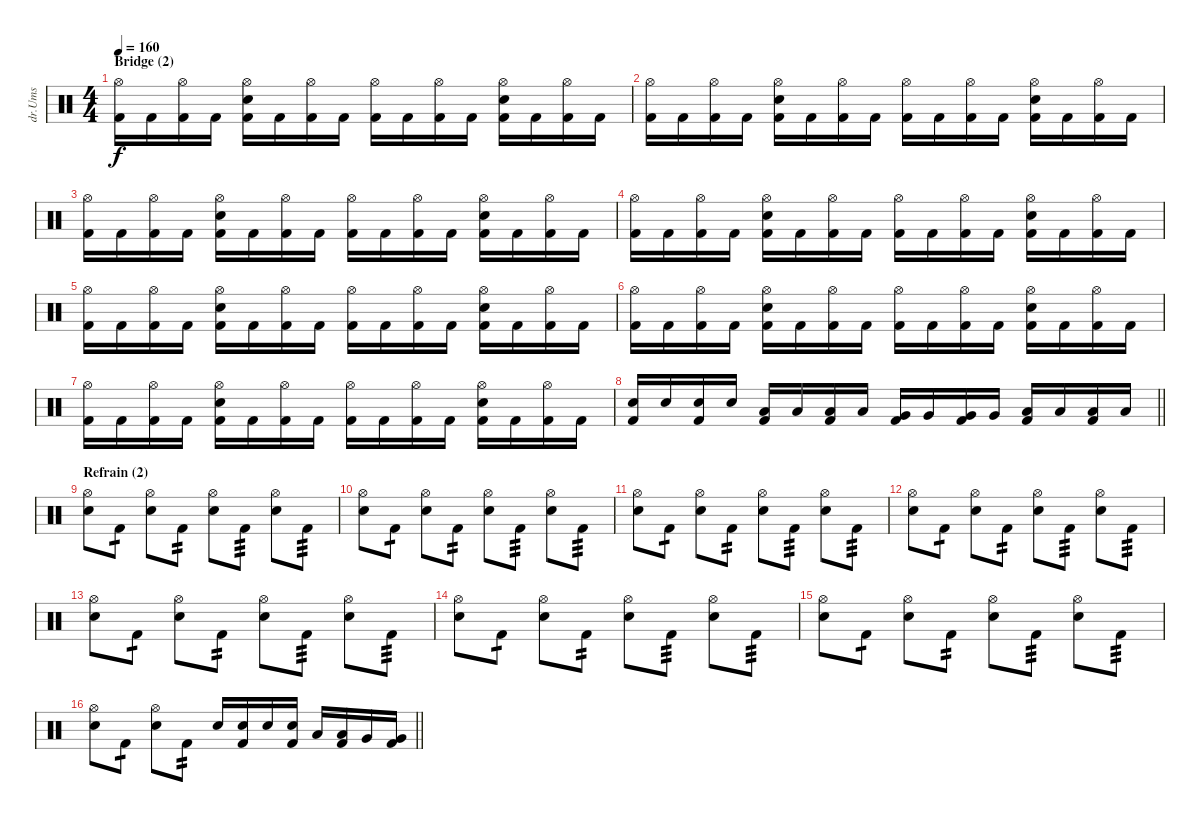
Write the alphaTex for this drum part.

\track ("dr.Ums" "dr.Ums") {instrument percussion}
\staff {score}
\articulation defaults
\ts (4 4)
\section ("" "Bridge (2)")
\tempo 160
\clef neutral
\ks c
("Kick (hit) 2" "Hi-Hat (open)").16{dy f} "Kick (hit) 2".16 ("Kick (hit) 2" "Hi-Hat (open)").16 "Kick (hit) 2".16 ("Kick (hit) 2" "Hi-Hat (open)" "Snare (hit) 2").16 "Kick (hit) 2".16 ("Kick (hit) 2" "Hi-Hat (open)").16 "Kick (hit) 2".16 ("Kick (hit) 2" "Hi-Hat (open)").16 "Kick (hit) 2".16 ("Kick (hit) 2" "Hi-Hat (open)").16 "Kick (hit) 2".16 ("Kick (hit) 2" "Hi-Hat (open)" "Snare (hit) 2").16 "Kick (hit) 2".16 ("Kick (hit) 2" "Hi-Hat (open)").16 "Kick (hit) 2".16 |
("Kick (hit) 2" "Hi-Hat (open)").16 "Kick (hit) 2".16 ("Kick (hit) 2" "Hi-Hat (open)").16 "Kick (hit) 2".16 ("Kick (hit) 2" "Hi-Hat (open)" "Snare (hit) 2").16 "Kick (hit) 2".16 ("Kick (hit) 2" "Hi-Hat (open)").16 "Kick (hit) 2".16 ("Kick (hit) 2" "Hi-Hat (open)").16 "Kick (hit) 2".16 ("Kick (hit) 2" "Hi-Hat (open)").16 "Kick (hit) 2".16 ("Kick (hit) 2" "Hi-Hat (open)" "Snare (hit) 2").16 "Kick (hit) 2".16 ("Kick (hit) 2" "Hi-Hat (open)").16 "Kick (hit) 2".16 |
("Kick (hit) 2" "Hi-Hat (open)").16 "Kick (hit) 2".16 ("Kick (hit) 2" "Hi-Hat (open)").16 "Kick (hit) 2".16 ("Kick (hit) 2" "Hi-Hat (open)" "Snare (hit) 2").16 "Kick (hit) 2".16 ("Kick (hit) 2" "Hi-Hat (open)").16 "Kick (hit) 2".16 ("Kick (hit) 2" "Hi-Hat (open)").16 "Kick (hit) 2".16 ("Kick (hit) 2" "Hi-Hat (open)").16 "Kick (hit) 2".16 ("Kick (hit) 2" "Hi-Hat (open)" "Snare (hit) 2").16 "Kick (hit) 2".16 ("Kick (hit) 2" "Hi-Hat (open)").16 "Kick (hit) 2".16 |
("Kick (hit) 2" "Hi-Hat (open)").16 "Kick (hit) 2".16 ("Kick (hit) 2" "Hi-Hat (open)").16 "Kick (hit) 2".16 ("Kick (hit) 2" "Hi-Hat (open)" "Snare (hit) 2").16 "Kick (hit) 2".16 ("Kick (hit) 2" "Hi-Hat (open)").16 "Kick (hit) 2".16 ("Kick (hit) 2" "Hi-Hat (open)").16 "Kick (hit) 2".16 ("Kick (hit) 2" "Hi-Hat (open)").16 "Kick (hit) 2".16 ("Kick (hit) 2" "Hi-Hat (open)" "Snare (hit) 2").16 "Kick (hit) 2".16 ("Kick (hit) 2" "Hi-Hat (open)").16 "Kick (hit) 2".16 |
("Kick (hit) 2" "Hi-Hat (open)").16 "Kick (hit) 2".16 ("Kick (hit) 2" "Hi-Hat (open)").16 "Kick (hit) 2".16 ("Kick (hit) 2" "Hi-Hat (open)" "Snare (hit) 2").16 "Kick (hit) 2".16 ("Kick (hit) 2" "Hi-Hat (open)").16 "Kick (hit) 2".16 ("Kick (hit) 2" "Hi-Hat (open)").16 "Kick (hit) 2".16 ("Kick (hit) 2" "Hi-Hat (open)").16 "Kick (hit) 2".16 ("Kick (hit) 2" "Hi-Hat (open)" "Snare (hit) 2").16 "Kick (hit) 2".16 ("Kick (hit) 2" "Hi-Hat (open)").16 "Kick (hit) 2".16 |
("Kick (hit) 2" "Hi-Hat (open)").16 "Kick (hit) 2".16 ("Kick (hit) 2" "Hi-Hat (open)").16 "Kick (hit) 2".16 ("Kick (hit) 2" "Hi-Hat (open)" "Snare (hit) 2").16 "Kick (hit) 2".16 ("Kick (hit) 2" "Hi-Hat (open)").16 "Kick (hit) 2".16 ("Kick (hit) 2" "Hi-Hat (open)").16 "Kick (hit) 2".16 ("Kick (hit) 2" "Hi-Hat (open)").16 "Kick (hit) 2".16 ("Kick (hit) 2" "Hi-Hat (open)" "Snare (hit) 2").16 "Kick (hit) 2".16 ("Kick (hit) 2" "Hi-Hat (open)").16 "Kick (hit) 2".16 |
("Kick (hit) 2" "Hi-Hat (open)").16 "Kick (hit) 2".16 ("Kick (hit) 2" "Hi-Hat (open)").16 "Kick (hit) 2".16 ("Kick (hit) 2" "Hi-Hat (open)" "Snare (hit) 2").16 "Kick (hit) 2".16 ("Kick (hit) 2" "Hi-Hat (open)").16 "Kick (hit) 2".16 ("Kick (hit) 2" "Hi-Hat (open)").16 "Kick (hit) 2".16 ("Kick (hit) 2" "Hi-Hat (open)").16 "Kick (hit) 2".16 ("Kick (hit) 2" "Hi-Hat (open)" "Snare (hit) 2").16 "Kick (hit) 2".16 ("Kick (hit) 2" "Hi-Hat (open)").16 "Kick (hit) 2".16 |
\barLineRight lightlight
("Snare (hit) 2" "Kick (hit) 2").16 "Snare (hit) 2".16 ("Snare (hit) 2" "Kick (hit) 2").16 "Snare (hit) 2".16 ("Low Tom (hit)" "Kick (hit) 2").16 "Low Tom (hit)".16 ("Low Tom (hit)" "Kick (hit) 2").16 "Low Tom (hit)".16 ("Very Low Tom (hit)" "Kick (hit) 2").16 "Very Low Tom (hit)".16 ("Very Low Tom (hit)" "Kick (hit) 2").16 "Very Low Tom (hit)".16 ("Low Floor Tom (hit)" "Kick (hit) 2").16 "Low Floor Tom (hit)".16 ("Low Floor Tom (hit)" "Kick (hit) 2").16 "Low Floor Tom (hit)".16 |
\section ("" "Refrain (2)")
("Snare (hit) 2" "Hi-Hat (open)").8 "Kick (hit) 2".8{tp 1} ("Snare (hit) 2" "Hi-Hat (open)").8 "Kick (hit) 2".8{tp 2} ("Snare (hit) 2" "Hi-Hat (open)").8 "Kick (hit) 2".8{tp 3} ("Snare (hit) 2" "Hi-Hat (open)").8 "Kick (hit) 2".8{tp 3} |
("Snare (hit) 2" "Hi-Hat (open)").8 "Kick (hit) 2".8{tp 1} ("Snare (hit) 2" "Hi-Hat (open)").8 "Kick (hit) 2".8{tp 2} ("Snare (hit) 2" "Hi-Hat (open)").8 "Kick (hit) 2".8{tp 3} ("Snare (hit) 2" "Hi-Hat (open)").8 "Kick (hit) 2".8{tp 3} |
("Snare (hit) 2" "Hi-Hat (open)").8 "Kick (hit) 2".8{tp 1} ("Snare (hit) 2" "Hi-Hat (open)").8 "Kick (hit) 2".8{tp 2} ("Snare (hit) 2" "Hi-Hat (open)").8 "Kick (hit) 2".8{tp 3} ("Snare (hit) 2" "Hi-Hat (open)").8 "Kick (hit) 2".8{tp 3} |
("Snare (hit) 2" "Hi-Hat (open)").8 "Kick (hit) 2".8{tp 1} ("Snare (hit) 2" "Hi-Hat (open)").8 "Kick (hit) 2".8{tp 2} ("Snare (hit) 2" "Hi-Hat (open)").8 "Kick (hit) 2".8{tp 3} ("Snare (hit) 2" "Hi-Hat (open)").8 "Kick (hit) 2".8{tp 3} |
("Snare (hit) 2" "Hi-Hat (open)").8 "Kick (hit) 2".8{tp 1} ("Snare (hit) 2" "Hi-Hat (open)").8 "Kick (hit) 2".8{tp 2} ("Snare (hit) 2" "Hi-Hat (open)").8 "Kick (hit) 2".8{tp 3} ("Snare (hit) 2" "Hi-Hat (open)").8 "Kick (hit) 2".8{tp 3} |
("Snare (hit) 2" "Hi-Hat (open)").8 "Kick (hit) 2".8{tp 1} ("Snare (hit) 2" "Hi-Hat (open)").8 "Kick (hit) 2".8{tp 2} ("Snare (hit) 2" "Hi-Hat (open)").8 "Kick (hit) 2".8{tp 3} ("Snare (hit) 2" "Hi-Hat (open)").8 "Kick (hit) 2".8{tp 3} |
("Snare (hit) 2" "Hi-Hat (open)").8 "Kick (hit) 2".8{tp 1} ("Snare (hit) 2" "Hi-Hat (open)").8 "Kick (hit) 2".8{tp 2} ("Snare (hit) 2" "Hi-Hat (open)").8 "Kick (hit) 2".8{tp 3} ("Snare (hit) 2" "Hi-Hat (open)").8 "Kick (hit) 2".8{tp 3} |
\barLineRight lightlight
("Snare (hit) 2" "Hi-Hat (open)").8 "Kick (hit) 2".8{tp 1} ("Snare (hit) 2" "Hi-Hat (open)").8 "Kick (hit) 2".8{tp 2} "Snare (hit) 2".16 ("Snare (hit) 2" "Kick (hit) 2").16 "Snare (hit) 2".16 ("Snare (hit) 2" "Kick (hit) 2").16 "Low Tom (hit)".16 ("Low Tom (hit)" "Kick (hit) 2").16 "Very Low Tom (hit)".16 ("Very Low Tom (hit)" "Kick (hit) 2").16
